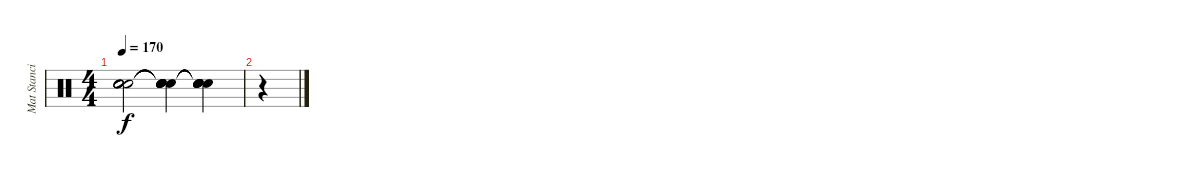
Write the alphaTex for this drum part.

\track ("Mat Stancioiu" "Mat Stanci") {instrument percussion}
\staff {score}
\articulation defaults
\ts (4 4)
\tempo 170
\clef neutral
\ks c
("Snare (hit)"{t} "Snare (hit)"{t} "Snare (hit)"{t} "Snare (hit)"{t} "Snare (hit)"{t}).2{dy f} ("Snare (hit)"{t} "Snare (hit)"{t} "Snare (hit)"{t} "Snare (hit)"{t} "Snare (hit)"{t}).4 ("Snare (hit)"{t} "Snare (hit)"{t} "Snare (hit)"{t} "Snare (hit)"{t} "Snare (hit)"{t}).4 |
r.4
